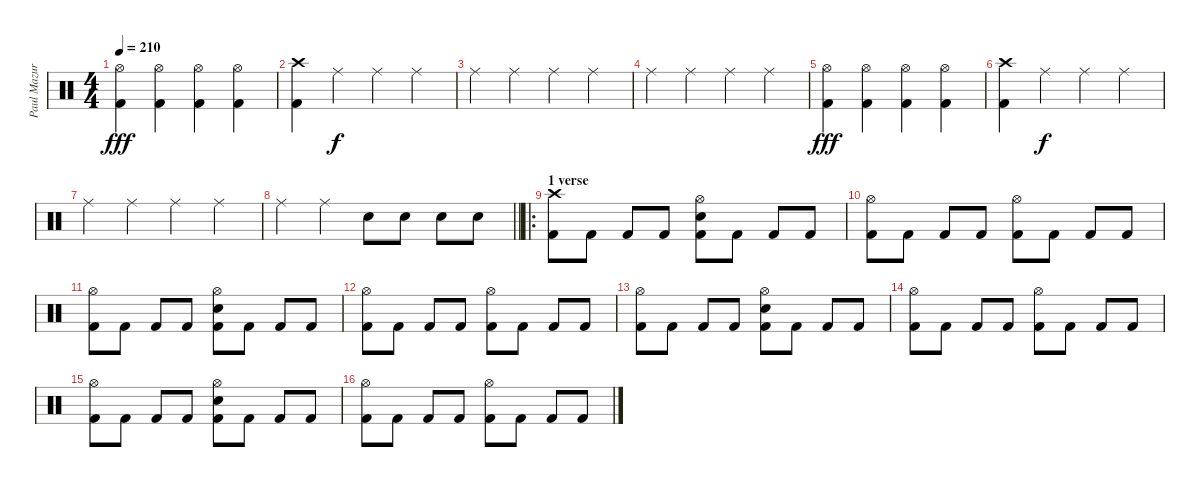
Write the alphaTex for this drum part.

\track ("Paul Mazurkiewicz" "Paul Mazur") {instrument percussion}
\staff {score}
\articulation defaults
\ts (4 4)
\tempo 210
\clef neutral
\ks c
("Hi-Hat (open)" "Kick (hit) 2").4{dy fff} ("Hi-Hat (open)" "Kick (hit) 2").4 ("Hi-Hat (open)" "Kick (hit) 2").4 ("Hi-Hat (open)" "Kick (hit) 2").4 |
("Crash high (hit)" "Kick (hit) 2").4 "Ride (middle)".4{dy f} "Ride (middle)".4 "Ride (middle)".4 |
"Ride (middle)".4 "Ride (middle)".4 "Ride (middle)".4 "Ride (middle)".4 |
"Ride (middle)".4 "Ride (middle)".4 "Ride (middle)".4 "Ride (middle)".4 |
("Hi-Hat (open)" "Kick (hit) 2").4{dy fff} ("Hi-Hat (open)" "Kick (hit) 2").4 ("Hi-Hat (open)" "Kick (hit) 2").4 ("Hi-Hat (open)" "Kick (hit) 2").4 |
("Crash high (hit)" "Kick (hit) 2").4 "Ride (middle)".4{dy f} "Ride (middle)".4 "Ride (middle)".4 |
"Ride (middle)".4 "Ride (middle)".4 "Ride (middle)".4 "Ride (middle)".4 |
\barLineRight lightlight "Ride (middle)".4 "Ride (middle)".4 "Snare (hit) 2".8 "Snare (hit) 2".8 "Snare (hit) 2".8 "Snare (hit) 2".8
|
\ro
\section ("" "1 verse")
("Crash high (hit)" "Kick (hit) 2").8 "Kick (hit) 2".8 "Kick (hit) 2".8 "Kick (hit) 2".8 ("Hi-Hat (open)" "Snare (hit) 2" "Kick (hit) 2").8 "Kick (hit) 2".8 "Kick (hit) 2".8 "Kick (hit) 2".8 |
("Hi-Hat (open)" "Kick (hit) 2").8 "Kick (hit) 2".8 "Kick (hit) 2".8 "Kick (hit) 2".8 ("Hi-Hat (open)" "Kick (hit) 2").8 "Kick (hit) 2".8 "Kick (hit) 2".8 "Kick (hit) 2".8 |
("Hi-Hat (open)" "Kick (hit) 2").8 "Kick (hit) 2".8 "Kick (hit) 2".8 "Kick (hit) 2".8 ("Hi-Hat (open)" "Snare (hit) 2" "Kick (hit) 2").8 "Kick (hit) 2".8 "Kick (hit) 2".8 "Kick (hit) 2".8 |
("Hi-Hat (open)" "Kick (hit) 2").8 "Kick (hit) 2".8 "Kick (hit) 2".8 "Kick (hit) 2".8 ("Hi-Hat (open)" "Kick (hit) 2").8 "Kick (hit) 2".8 "Kick (hit) 2".8 "Kick (hit) 2".8 |
("Hi-Hat (open)" "Kick (hit) 2").8 "Kick (hit) 2".8 "Kick (hit) 2".8 "Kick (hit) 2".8 ("Hi-Hat (open)" "Snare (hit) 2" "Kick (hit) 2").8 "Kick (hit) 2".8 "Kick (hit) 2".8 "Kick (hit) 2".8 |
("Hi-Hat (open)" "Kick (hit) 2").8 "Kick (hit) 2".8 "Kick (hit) 2".8 "Kick (hit) 2".8 ("Hi-Hat (open)" "Kick (hit) 2").8 "Kick (hit) 2".8 "Kick (hit) 2".8 "Kick (hit) 2".8 |
("Hi-Hat (open)" "Kick (hit) 2").8 "Kick (hit) 2".8 "Kick (hit) 2".8 "Kick (hit) 2".8 ("Hi-Hat (open)" "Snare (hit) 2" "Kick (hit) 2").8 "Kick (hit) 2".8 "Kick (hit) 2".8 "Kick (hit) 2".8 |
("Hi-Hat (open)" "Kick (hit) 2").8 "Kick (hit) 2".8 "Kick (hit) 2".8 "Kick (hit) 2".8 ("Hi-Hat (open)" "Kick (hit) 2").8 "Kick (hit) 2".8 "Kick (hit) 2".8 "Kick (hit) 2".8
